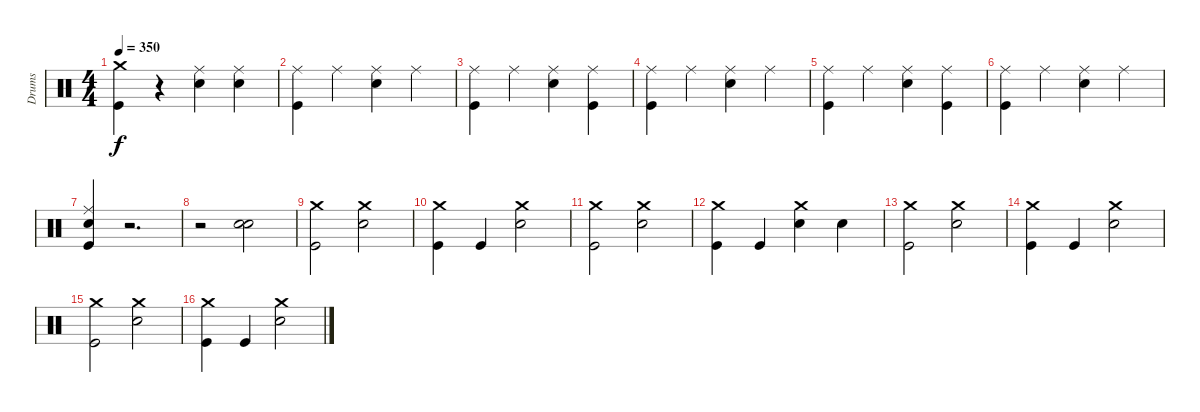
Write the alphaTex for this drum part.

\track ("Drums" "Drums") {instrument percussion}
\staff {score}
\articulation defaults
\ts (4 4)
\tempo 350
\clef neutral
\ks c
("Crash medium (hit)" "Kick (hit)").4{dy f} r.4 ("Ride (middle)" "Snare (hit) 2").4 ("Ride (middle)" "Snare (hit) 2").4 |
("Ride (middle)" "Kick (hit)").4 "Ride (middle)".4 ("Ride (middle)" "Snare (hit) 2").4 "Ride (middle)".4 |
("Ride (middle)" "Kick (hit)").4 "Ride (middle)".4 ("Ride (middle)" "Snare (hit) 2").4 ("Ride (middle)" "Kick (hit)").4 |
("Ride (middle)" "Kick (hit)").4 "Ride (middle)".4 ("Ride (middle)" "Snare (hit) 2").4 "Ride (middle)".4 |
("Ride (middle)" "Kick (hit)").4 "Ride (middle)".4 ("Ride (middle)" "Snare (hit) 2").4 ("Ride (middle)" "Kick (hit)").4 |
("Ride (middle)" "Kick (hit)").4 "Ride (middle)".4 ("Ride (middle)" "Snare (hit) 2").4 "Ride (middle)".4 |
("Ride (middle)" "Snare (hit) 2" "Kick (hit)").4 r.2{d} |
r.2 ("Snare (hit) 2" "Snare (hit) 2").2 |
("Crash medium (hit)" "Kick (hit)").2 ("Crash medium (hit)" "Snare (hit) 2").2 |
("Crash medium (hit)" "Kick (hit)").4 "Kick (hit)".4 ("Crash medium (hit)" "Snare (hit) 2").2 |
("Crash medium (hit)" "Kick (hit)").2 ("Crash medium (hit)" "Snare (hit) 2").2 |
("Crash medium (hit)" "Kick (hit)").4 "Kick (hit)".4 ("Crash medium (hit)" "Snare (hit) 2").4 "Snare (hit) 2".4 |
("Crash medium (hit)" "Kick (hit)").2 ("Crash medium (hit)" "Snare (hit) 2").2 |
("Crash medium (hit)" "Kick (hit)").4 "Kick (hit)".4 ("Crash medium (hit)" "Snare (hit) 2").2 |
("Crash medium (hit)" "Kick (hit)").2 ("Crash medium (hit)" "Snare (hit) 2").2 |
("Crash medium (hit)" "Kick (hit)").4 "Kick (hit)".4 ("Crash medium (hit)" "Snare (hit) 2").2
